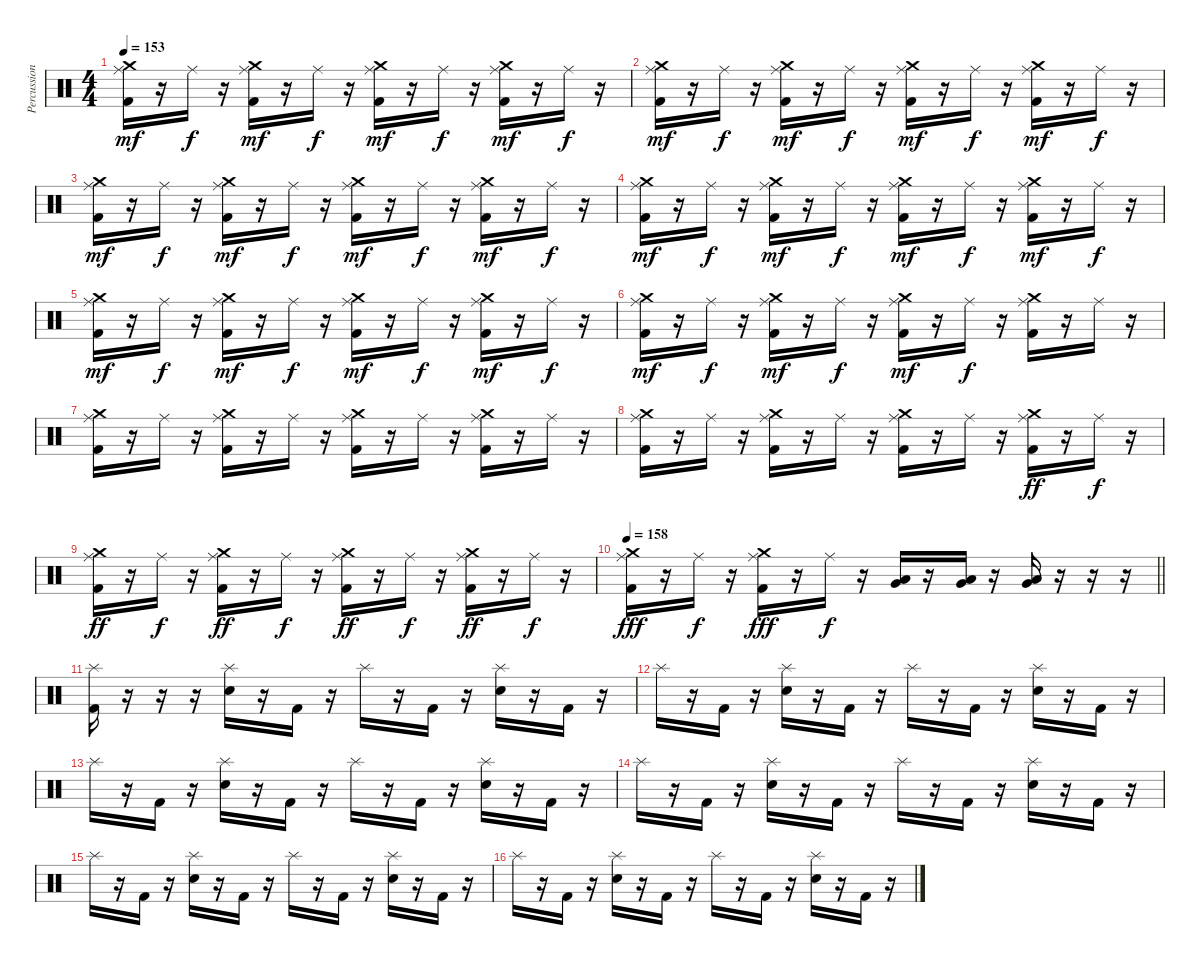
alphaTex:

\track ("Percussion" "Percussion") {instrument percussion}
\staff {score}
\articulation defaults
\ts (4 4)
\tempo 153
\clef neutral
\ks c
("Ride (middle)" "Crash medium (hit)" "Kick (hit) 2").16{dy mf} r.16 "Ride (middle)".16{dy f} r.16 ("Ride (middle)" "Crash medium (hit)" "Kick (hit) 2").16{dy mf} r.16 "Ride (middle)".16{dy f} r.16 ("Ride (middle)" "Crash medium (hit)" "Kick (hit) 2").16{dy mf} r.16 "Ride (middle)".16{dy f} r.16 ("Ride (middle)" "Crash medium (hit)" "Kick (hit) 2").16{dy mf} r.16 "Ride (middle)".16{dy f} r.16 |
("Ride (middle)" "Crash medium (hit)" "Kick (hit) 2").16{dy mf} r.16 "Ride (middle)".16{dy f} r.16 ("Ride (middle)" "Crash medium (hit)" "Kick (hit) 2").16{dy mf} r.16 "Ride (middle)".16{dy f} r.16 ("Ride (middle)" "Crash medium (hit)" "Kick (hit) 2").16{dy mf} r.16 "Ride (middle)".16{dy f} r.16 ("Ride (middle)" "Crash medium (hit)" "Kick (hit) 2").16{dy mf} r.16 "Ride (middle)".16{dy f} r.16 |
("Ride (middle)" "Crash medium (hit)" "Kick (hit) 2").16{dy mf} r.16 "Ride (middle)".16{dy f} r.16 ("Ride (middle)" "Crash medium (hit)" "Kick (hit) 2").16{dy mf} r.16 "Ride (middle)".16{dy f} r.16 ("Ride (middle)" "Crash medium (hit)" "Kick (hit) 2").16{dy mf} r.16 "Ride (middle)".16{dy f} r.16 ("Ride (middle)" "Crash medium (hit)" "Kick (hit) 2").16{dy mf} r.16 "Ride (middle)".16{dy f} r.16 |
("Ride (middle)" "Crash medium (hit)" "Kick (hit) 2").16{dy mf} r.16 "Ride (middle)".16{dy f} r.16 ("Ride (middle)" "Crash medium (hit)" "Kick (hit) 2").16{dy mf} r.16 "Ride (middle)".16{dy f} r.16 ("Ride (middle)" "Crash medium (hit)" "Kick (hit) 2").16{dy mf} r.16 "Ride (middle)".16{dy f} r.16 ("Ride (middle)" "Crash medium (hit)" "Kick (hit) 2").16{dy mf} r.16 "Ride (middle)".16{dy f} r.16 |
("Ride (middle)" "Crash medium (hit)" "Kick (hit) 2").16{dy mf} r.16 "Ride (middle)".16{dy f} r.16 ("Ride (middle)" "Crash medium (hit)" "Kick (hit) 2").16{dy mf} r.16 "Ride (middle)".16{dy f} r.16 ("Ride (middle)" "Crash medium (hit)" "Kick (hit) 2").16{dy mf} r.16 "Ride (middle)".16{dy f} r.16 ("Ride (middle)" "Crash medium (hit)" "Kick (hit) 2").16{dy mf} r.16 "Ride (middle)".16{dy f} r.16 |
("Ride (middle)" "Crash medium (hit)" "Kick (hit) 2").16{dy mf} r.16 "Ride (middle)".16{dy f} r.16 ("Ride (middle)" "Crash medium (hit)" "Kick (hit) 2").16{dy mf} r.16 "Ride (middle)".16{dy f} r.16 ("Ride (middle)" "Crash medium (hit)" "Kick (hit) 2").16{dy mf} r.16 "Ride (middle)".16{dy f} r.16 ("Ride (middle)" "Crash medium (hit)" "Kick (hit) 2").16 r.16 "Ride (middle)".16 r.16 |
("Ride (middle)" "Crash medium (hit)" "Kick (hit) 2").16 r.16 "Ride (middle)".16 r.16 ("Ride (middle)" "Crash medium (hit)" "Kick (hit) 2").16 r.16 "Ride (middle)".16 r.16 ("Ride (middle)" "Crash medium (hit)" "Kick (hit) 2").16 r.16 "Ride (middle)".16 r.16 ("Ride (middle)" "Crash medium (hit)" "Kick (hit) 2").16 r.16 "Ride (middle)".16 r.16 |
("Ride (middle)" "Crash medium (hit)" "Kick (hit) 2").16 r.16 "Ride (middle)".16 r.16 ("Ride (middle)" "Crash medium (hit)" "Kick (hit) 2").16 r.16 "Ride (middle)".16 r.16 ("Ride (middle)" "Crash medium (hit)" "Kick (hit) 2").16 r.16 "Ride (middle)".16 r.16 ("Ride (middle)" "Crash medium (hit)" "Kick (hit) 2").16{dy ff} r.16 "Ride (middle)".16{dy f} r.16 |
("Ride (middle)" "Crash medium (hit)" "Kick (hit) 2").16{dy ff} r.16 "Ride (middle)".16{dy f} r.16 ("Ride (middle)" "Crash medium (hit)" "Kick (hit) 2").16{dy ff} r.16 "Ride (middle)".16{dy f} r.16 ("Ride (middle)" "Crash medium (hit)" "Kick (hit) 2").16{dy ff} r.16 "Ride (middle)".16{dy f} r.16 ("Ride (middle)" "Crash medium (hit)" "Kick (hit) 2").16{dy ff} r.16 "Ride (middle)".16{dy f} r.16 |
\tempo 158
\barLineRight lightlight
("Ride (middle)" "Crash medium (hit)" "Kick (hit) 2").16{dy fff} r.16 "Ride (middle)".16{dy f} r.16 ("Ride (middle)" "Crash medium (hit)" "Kick (hit) 2").16{dy fff} r.16 "Ride (middle)".16{dy f} r.16 ("Very Low Tom (hit)" "Low Tom (hit)").16 r.16 ("Very Low Tom (hit)" "Low Tom (hit)").16 r.16 ("Very Low Tom (hit)" "Low Tom (hit)").16 r.16 r.16 r.16 |
\section ("" "")
("Splash (hit)" "Kick (hit) 2").16 r.16 r.16 r.16 ("Splash (hit)" "Electric Snare (hit)").16 r.16 "Kick (hit) 2".16 r.16 "Splash (hit)".16 r.16 "Kick (hit) 2".16 r.16 ("Splash (hit)" "Electric Snare (hit)").16 r.16 "Kick (hit) 2".16 r.16 |
"Splash (hit)".16 r.16 "Kick (hit) 2".16 r.16 ("Splash (hit)" "Electric Snare (hit)").16 r.16 "Kick (hit) 2".16 r.16 "Splash (hit)".16 r.16 "Kick (hit) 2".16 r.16 ("Splash (hit)" "Electric Snare (hit)").16 r.16 "Kick (hit) 2".16 r.16 |
"Splash (hit)".16 r.16 "Kick (hit) 2".16 r.16 ("Splash (hit)" "Electric Snare (hit)").16 r.16 "Kick (hit) 2".16 r.16 "Splash (hit)".16 r.16 "Kick (hit) 2".16 r.16 ("Splash (hit)" "Electric Snare (hit)").16 r.16 "Kick (hit) 2".16 r.16 |
"Splash (hit)".16 r.16 "Kick (hit) 2".16 r.16 ("Splash (hit)" "Electric Snare (hit)").16 r.16 "Kick (hit) 2".16 r.16 "Splash (hit)".16 r.16 "Kick (hit) 2".16 r.16 ("Splash (hit)" "Electric Snare (hit)").16 r.16 "Kick (hit) 2".16 r.16 |
"Splash (hit)".16 r.16 "Kick (hit) 2".16 r.16 ("Splash (hit)" "Electric Snare (hit)").16 r.16 "Kick (hit) 2".16 r.16 "Splash (hit)".16 r.16 "Kick (hit) 2".16 r.16 ("Splash (hit)" "Electric Snare (hit)").16 r.16 "Kick (hit) 2".16 r.16 |
"Splash (hit)".16 r.16 "Kick (hit) 2".16 r.16 ("Splash (hit)" "Electric Snare (hit)").16 r.16 "Kick (hit) 2".16 r.16 "Splash (hit)".16 r.16 "Kick (hit) 2".16 r.16 ("Splash (hit)" "Electric Snare (hit)").16 r.16 "Kick (hit) 2".16 r.16
